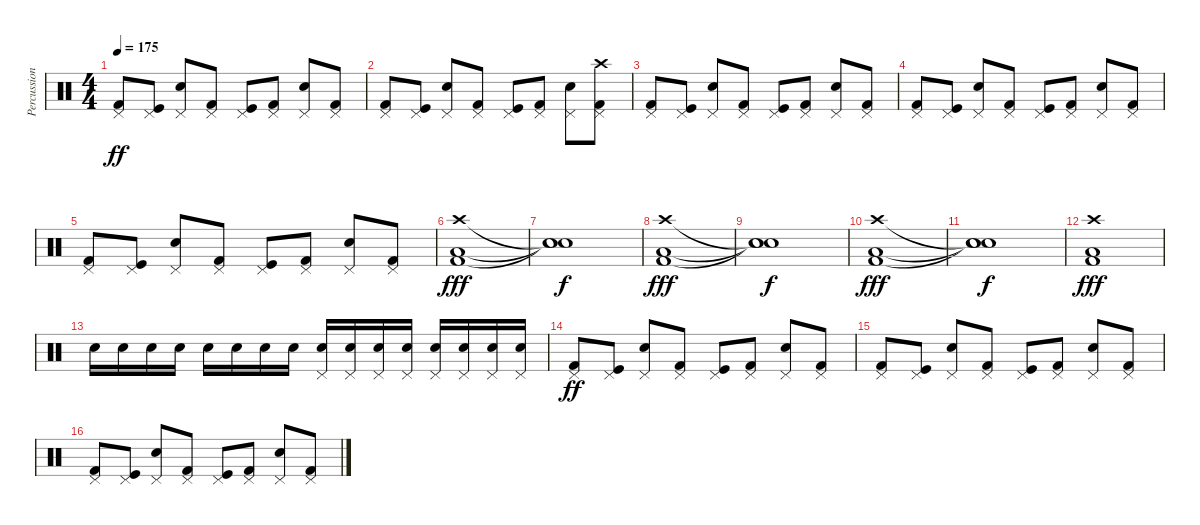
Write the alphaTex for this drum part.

\track ("Percussion (Karlo Žuliæ)" "Percussion") {instrument percussion}
\staff {score}
\articulation defaults
\ts (4 4)
\tempo 175
\clef neutral
\ks c
("Pedal Hi-Hat (hit)" "Kick (hit) 2").8{dy ff} ("Pedal Hi-Hat (hit)" "Kick (hit)").8 ("Pedal Hi-Hat (hit)" "Snare (hit) 2").8 ("Pedal Hi-Hat (hit)" "Kick (hit) 2").8 ("Pedal Hi-Hat (hit)" "Kick (hit)").8 ("Pedal Hi-Hat (hit)" "Kick (hit) 2").8 ("Pedal Hi-Hat (hit)" "Snare (hit) 2").8 ("Pedal Hi-Hat (hit)" "Kick (hit) 2").8 |
("Pedal Hi-Hat (hit)" "Kick (hit) 2").8 ("Pedal Hi-Hat (hit)" "Kick (hit)").8 ("Pedal Hi-Hat (hit)" "Snare (hit) 2").8 ("Pedal Hi-Hat (hit)" "Kick (hit) 2").8 ("Pedal Hi-Hat (hit)" "Kick (hit)").8 ("Pedal Hi-Hat (hit)" "Kick (hit) 2").8 ("Pedal Hi-Hat (hit)" "Snare (hit) 2").8 ("Pedal Hi-Hat (hit)" "Kick (hit) 2" "Crash high (hit)").8 |
("Pedal Hi-Hat (hit)" "Kick (hit) 2").8 ("Pedal Hi-Hat (hit)" "Kick (hit)").8 ("Pedal Hi-Hat (hit)" "Snare (hit) 2").8 ("Pedal Hi-Hat (hit)" "Kick (hit) 2").8 ("Pedal Hi-Hat (hit)" "Kick (hit)").8 ("Pedal Hi-Hat (hit)" "Kick (hit) 2").8 ("Pedal Hi-Hat (hit)" "Snare (hit) 2").8 ("Pedal Hi-Hat (hit)" "Kick (hit) 2").8 |
("Pedal Hi-Hat (hit)" "Kick (hit) 2").8 ("Pedal Hi-Hat (hit)" "Kick (hit)").8 ("Pedal Hi-Hat (hit)" "Snare (hit) 2").8 ("Pedal Hi-Hat (hit)" "Kick (hit) 2").8 ("Pedal Hi-Hat (hit)" "Kick (hit)").8 ("Pedal Hi-Hat (hit)" "Kick (hit) 2").8 ("Pedal Hi-Hat (hit)" "Snare (hit) 2").8 ("Pedal Hi-Hat (hit)" "Kick (hit) 2").8 |
("Pedal Hi-Hat (hit)" "Kick (hit) 2").8 ("Pedal Hi-Hat (hit)" "Kick (hit)").8 ("Pedal Hi-Hat (hit)" "Snare (hit) 2").8 ("Pedal Hi-Hat (hit)" "Kick (hit) 2").8 ("Pedal Hi-Hat (hit)" "Kick (hit)").8 ("Pedal Hi-Hat (hit)" "Kick (hit) 2").8 ("Pedal Hi-Hat (hit)" "Snare (hit) 2").8 ("Pedal Hi-Hat (hit)" "Kick (hit) 2").8 |
("Low Floor Tom (hit)" "Kick (hit) 2" "Crash high (hit)").1{dy fff} |
("Snare (hit)"{t} "Snare (hit)"{t} "Snare (hit)"{t}).1{dy f} |
("Low Floor Tom (hit)" "Kick (hit) 2" "Crash high (hit)").1{dy fff} |
("Snare (hit)"{t} "Snare (hit)"{t} "Snare (hit)"{t}).1{dy f} |
("Low Floor Tom (hit)" "Kick (hit) 2" "Crash high (hit)").1{dy fff} |
("Snare (hit)"{t} "Snare (hit)"{t} "Snare (hit)"{t}).1{dy f} |
("Low Floor Tom (hit)" "Kick (hit) 2" "Crash high (hit)").1{dy fff} |
"Snare (hit) 2".16 "Snare (hit) 2".16 "Snare (hit) 2".16 "Snare (hit) 2".16 "Snare (hit) 2".16 "Snare (hit) 2".16 "Snare (hit) 2".16 "Snare (hit) 2".16 ("Snare (hit) 2" "Pedal Hi-Hat (hit)").16 ("Snare (hit) 2" "Pedal Hi-Hat (hit)").16 ("Snare (hit) 2" "Pedal Hi-Hat (hit)").16 ("Snare (hit) 2" "Pedal Hi-Hat (hit)").16 ("Snare (hit) 2" "Pedal Hi-Hat (hit)").16 ("Snare (hit) 2" "Pedal Hi-Hat (hit)").16 ("Snare (hit) 2" "Pedal Hi-Hat (hit)").16 ("Snare (hit) 2" "Pedal Hi-Hat (hit)").16 |
("Pedal Hi-Hat (hit)" "Kick (hit) 2").8{dy ff} ("Pedal Hi-Hat (hit)" "Kick (hit)").8 ("Pedal Hi-Hat (hit)" "Snare (hit) 2").8 ("Pedal Hi-Hat (hit)" "Kick (hit) 2").8 ("Pedal Hi-Hat (hit)" "Kick (hit)").8 ("Pedal Hi-Hat (hit)" "Kick (hit) 2").8 ("Pedal Hi-Hat (hit)" "Snare (hit) 2").8 ("Pedal Hi-Hat (hit)" "Kick (hit) 2").8 |
("Pedal Hi-Hat (hit)" "Kick (hit) 2").8 ("Pedal Hi-Hat (hit)" "Kick (hit)").8 ("Pedal Hi-Hat (hit)" "Snare (hit) 2").8 ("Pedal Hi-Hat (hit)" "Kick (hit) 2").8 ("Pedal Hi-Hat (hit)" "Kick (hit)").8 ("Pedal Hi-Hat (hit)" "Kick (hit) 2").8 ("Pedal Hi-Hat (hit)" "Snare (hit) 2").8 ("Pedal Hi-Hat (hit)" "Kick (hit) 2").8 |
("Pedal Hi-Hat (hit)" "Kick (hit) 2").8 ("Pedal Hi-Hat (hit)" "Kick (hit)").8 ("Pedal Hi-Hat (hit)" "Snare (hit) 2").8 ("Pedal Hi-Hat (hit)" "Kick (hit) 2").8 ("Pedal Hi-Hat (hit)" "Kick (hit)").8 ("Pedal Hi-Hat (hit)" "Kick (hit) 2").8 ("Pedal Hi-Hat (hit)" "Snare (hit) 2").8 ("Pedal Hi-Hat (hit)" "Kick (hit) 2").8
